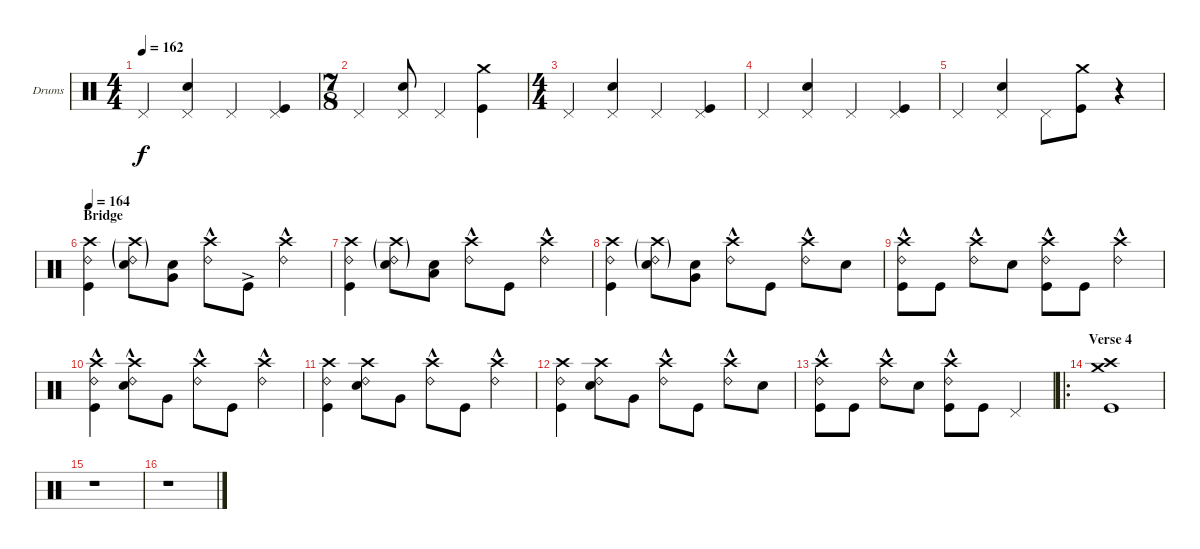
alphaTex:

\defaultSystemsLayout 4
\bracketExtendMode groupsimilarinstruments
\firstSystemTrackNameOrientation horizontal
\otherSystemsTrackNameOrientation horizontal
\track ("Drumkit" "Drums") {instrument percussion}
\staff {score}
\articulation defaults
\ts (4 4)
\tempo 162
\clef neutral
\ks c "Pedal Hi-Hat (hit)".4{dy f}
("Snare (hit) 2" "Pedal Hi-Hat (hit)").4 "Pedal Hi-Hat (hit)".4 ("Kick (hit)" "Pedal Hi-Hat (hit)").4 |
\ts (7 8)
"Pedal Hi-Hat (hit)".4 ("Snare (hit) 2" "Pedal Hi-Hat (hit)").8 "Pedal Hi-Hat (hit)".4 ("Crash medium (hit)" "Kick (hit)").4 |
\ts (4 4)
"Pedal Hi-Hat (hit)".4 ("Pedal Hi-Hat (hit)" "Snare (hit) 2").4 "Pedal Hi-Hat (hit)".4 ("Kick (hit)" "Pedal Hi-Hat (hit)").4 |
"Pedal Hi-Hat (hit)".4 ("Snare (hit) 2" "Pedal Hi-Hat (hit)").4 "Pedal Hi-Hat (hit)".4 ("Pedal Hi-Hat (hit)" "Kick (hit)").4 |
"Pedal Hi-Hat (hit)".4 ("Pedal Hi-Hat (hit)" "Snare (hit) 2").4 "Pedal Hi-Hat (hit)".8 ("Crash medium (hit)" "Kick (hit)").8 r.4 |
\section ("" "Bridge")
\tempo 164
("Kick (hit)" "Ride (bell) 2" "Crash high (hit)").4 ("Snare (hit) 2"{g} "Ride (bell) 2"{g} "Crash high (hit)"{g}).8 ("Very Low Tom (hit)" "Snare (hit) 2").8 ("Ride (bell) 2"{hac} "Crash high (hit)"{hac}).8 "Kick (hit)"{ac}.8 ("Ride (bell) 2"{hac} "Crash high (hit)"{hac}).4 |
("Kick (hit)" "Ride (bell) 2" "Crash high (hit)").4 ("Snare (hit) 2"{g} "Ride (bell) 2"{g} "Crash high (hit)"{g}).8 ("Low Tom (hit)" "Snare (hit) 2").8 ("Ride (bell) 2"{hac} "Crash high (hit)"{hac}).8 "Kick (hit)".8 ("Ride (bell) 2"{hac} "Crash high (hit)"{hac}).4 |
("Kick (hit)" "Ride (bell) 2" "Crash high (hit)").4 ("Snare (hit) 2"{g} "Ride (bell) 2"{g} "Crash high (hit)"{g}).8 ("Very Low Tom (hit)" "Snare (hit) 2").8 ("Ride (bell) 2"{hac} "Crash high (hit)"{hac}).8 "Kick (hit)".8 ("Ride (bell) 2"{hac} "Crash high (hit)"{hac}).8 "Snare (hit) 2".8 |
("Ride (bell) 2"{hac} "Kick (hit)"{hac} "Crash high (hit)"{hac}).8 "Kick (hit)".8 ("Ride (bell) 2"{hac} "Crash high (hit)"{hac}).8 "Snare (hit) 2".8 ("Ride (bell) 2"{hac} "Kick (hit)"{hac} "Crash high (hit)"{hac}).8 "Kick (hit)".8 ("Ride (bell) 2"{hac} "Crash high (hit)"{hac}).4 |
("Ride (bell) 2"{hac} "Kick (hit)"{hac} "Crash high (hit)"{hac}).4 ("Ride (bell) 2"{hac} "Snare (hit) 2"{hac} "Crash high (hit)"{hac}).8 "Very Low Tom (hit)".8 ("Ride (bell) 2"{hac} "Crash high (hit)"{hac}).8 "Kick (hit)".8 ("Ride (bell) 2"{hac} "Crash high (hit)"{hac}).4 |
("Kick (hit)" "Ride (bell) 2" "Crash high (hit)").4 ("Snare (hit) 2" "Ride (bell) 2" "Crash high (hit)").8 "Very Low Tom (hit)".8 ("Ride (bell) 2"{hac} "Crash high (hit)"{hac}).8 "Kick (hit)".8 ("Ride (bell) 2"{hac} "Crash high (hit)"{hac}).4 |
("Kick (hit)" "Ride (bell) 2" "Crash high (hit)").4 ("Snare (hit) 2" "Ride (bell) 2" "Crash high (hit)").8 "Very Low Tom (hit)".8 ("Ride (bell) 2"{hac} "Crash high (hit)"{hac}).8 "Kick (hit)".8 ("Ride (bell) 2"{hac} "Crash high (hit)"{hac}).8 "Snare (hit) 2".8 |
("Ride (bell) 2"{hac} "Kick (hit)"{hac} "Crash high (hit)"{hac}).8 "Kick (hit)".8 ("Ride (bell) 2"{hac} "Crash high (hit)"{hac}).8 "Snare (hit) 2".8 ("Ride (bell) 2"{hac} "Kick (hit)"{hac} "Crash high (hit)"{hac}).8 "Kick (hit)".8 "Pedal Hi-Hat (hit)".4 |
\ro
\section ("" "Verse 4")
("Kick (hit)" "Crash medium (hit)" "Crash high (hit)").1 |
r.1 |
r.1
